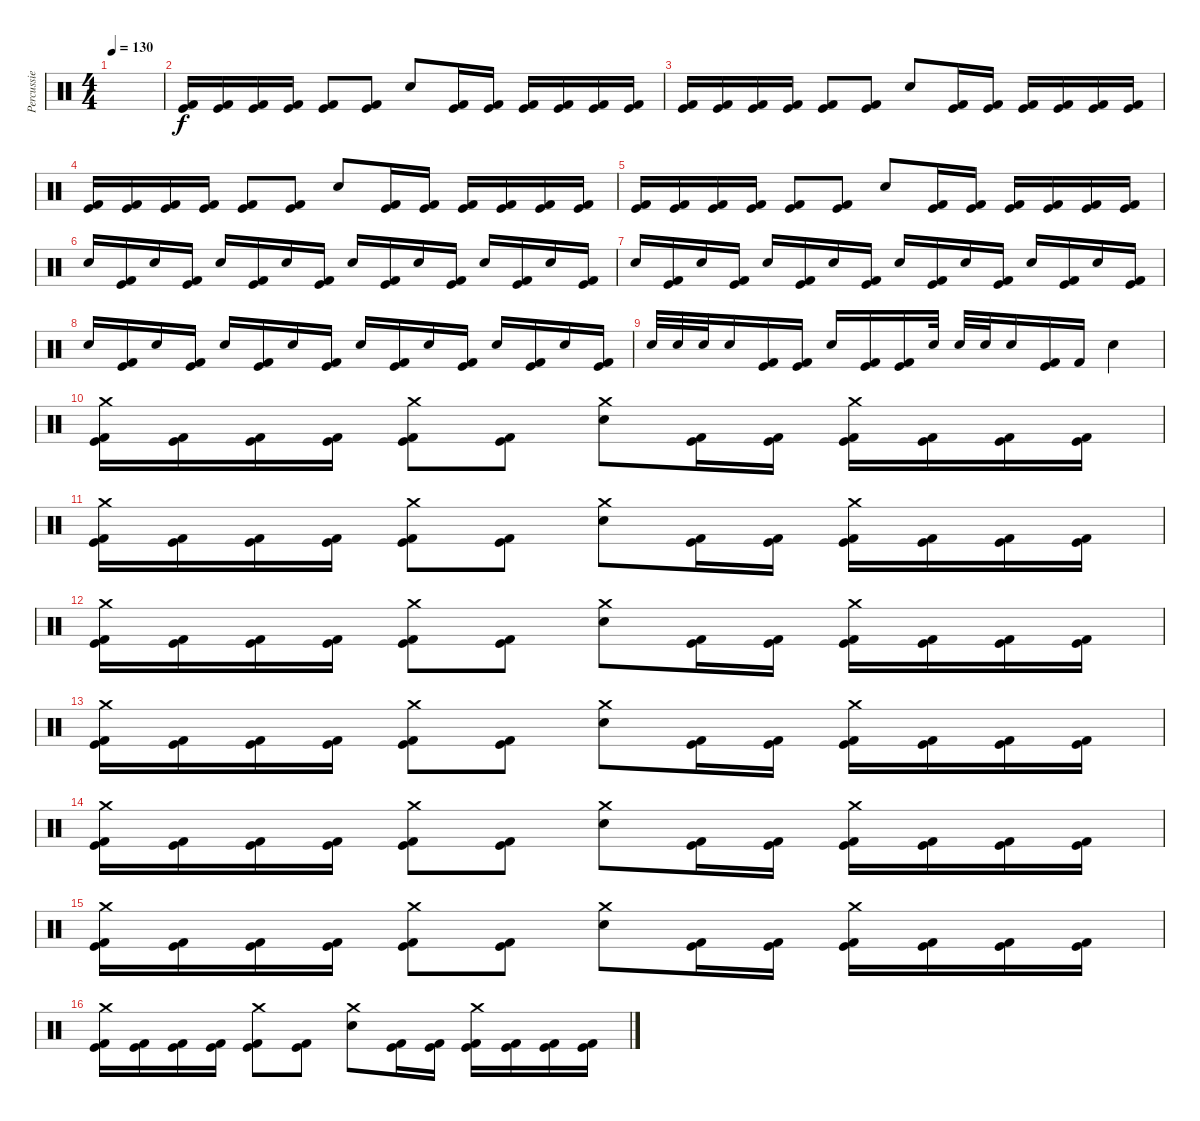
\track ("Percussie" "Percussie") {instrument percussion}
\staff {score}
\articulation defaults
\ts (4 4)
\tempo 130
\clef neutral
\ks c
|
("Kick (hit)" "Kick (hit) 2").16 ("Kick (hit)" "Kick (hit) 2").16 ("Kick (hit)" "Kick (hit) 2").16 ("Kick (hit)" "Kick (hit) 2").16 ("Kick (hit)" "Kick (hit) 2").8 ("Kick (hit)" "Kick (hit) 2").8 "Electric Snare (hit)".8 ("Kick (hit)" "Kick (hit) 2").16 ("Kick (hit)" "Kick (hit) 2").16 ("Kick (hit)" "Kick (hit) 2").16 ("Kick (hit)" "Kick (hit) 2").16 ("Kick (hit)" "Kick (hit) 2").16 ("Kick (hit)" "Kick (hit) 2").16 |
("Kick (hit)" "Kick (hit) 2").16 ("Kick (hit)" "Kick (hit) 2").16 ("Kick (hit)" "Kick (hit) 2").16 ("Kick (hit)" "Kick (hit) 2").16 ("Kick (hit)" "Kick (hit) 2").8 ("Kick (hit)" "Kick (hit) 2").8 "Electric Snare (hit)".8 ("Kick (hit)" "Kick (hit) 2").16 ("Kick (hit)" "Kick (hit) 2").16 ("Kick (hit)" "Kick (hit) 2").16 ("Kick (hit)" "Kick (hit) 2").16 ("Kick (hit)" "Kick (hit) 2").16 ("Kick (hit)" "Kick (hit) 2").16 |
("Kick (hit)" "Kick (hit) 2").16 ("Kick (hit)" "Kick (hit) 2").16 ("Kick (hit)" "Kick (hit) 2").16 ("Kick (hit)" "Kick (hit) 2").16 ("Kick (hit)" "Kick (hit) 2").8 ("Kick (hit)" "Kick (hit) 2").8 "Electric Snare (hit)".8 ("Kick (hit)" "Kick (hit) 2").16 ("Kick (hit)" "Kick (hit) 2").16 ("Kick (hit)" "Kick (hit) 2").16 ("Kick (hit)" "Kick (hit) 2").16 ("Kick (hit)" "Kick (hit) 2").16 ("Kick (hit)" "Kick (hit) 2").16 |
("Kick (hit)" "Kick (hit) 2").16 ("Kick (hit)" "Kick (hit) 2").16 ("Kick (hit)" "Kick (hit) 2").16 ("Kick (hit)" "Kick (hit) 2").16 ("Kick (hit)" "Kick (hit) 2").8 ("Kick (hit)" "Kick (hit) 2").8 "Electric Snare (hit)".8 ("Kick (hit)" "Kick (hit) 2").16 ("Kick (hit)" "Kick (hit) 2").16 ("Kick (hit)" "Kick (hit) 2").16 ("Kick (hit)" "Kick (hit) 2").16 ("Kick (hit)" "Kick (hit) 2").16 ("Kick (hit)" "Kick (hit) 2").16 |
"Electric Snare (hit)".16 ("Kick (hit)" "Kick (hit) 2").16 "Electric Snare (hit)".16 ("Kick (hit)" "Kick (hit) 2").16 "Electric Snare (hit)".16 ("Kick (hit)" "Kick (hit) 2").16 "Electric Snare (hit)".16 ("Kick (hit)" "Kick (hit) 2").16 "Electric Snare (hit)".16 ("Kick (hit)" "Kick (hit) 2").16 "Electric Snare (hit)".16 ("Kick (hit)" "Kick (hit) 2").16 "Electric Snare (hit)".16 ("Kick (hit)" "Kick (hit) 2").16 "Electric Snare (hit)".16 ("Kick (hit)" "Kick (hit) 2").16 |
"Electric Snare (hit)".16 ("Kick (hit)" "Kick (hit) 2").16 "Electric Snare (hit)".16 ("Kick (hit)" "Kick (hit) 2").16 "Electric Snare (hit)".16 ("Kick (hit)" "Kick (hit) 2").16 "Electric Snare (hit)".16 ("Kick (hit)" "Kick (hit) 2").16 "Electric Snare (hit)".16 ("Kick (hit)" "Kick (hit) 2").16 "Electric Snare (hit)".16 ("Kick (hit)" "Kick (hit) 2").16 "Electric Snare (hit)".16 ("Kick (hit)" "Kick (hit) 2").16 "Electric Snare (hit)".16 ("Kick (hit)" "Kick (hit) 2").16 |
"Electric Snare (hit)".16 ("Kick (hit)" "Kick (hit) 2").16 "Electric Snare (hit)".16 ("Kick (hit)" "Kick (hit) 2").16 "Electric Snare (hit)".16 ("Kick (hit)" "Kick (hit) 2").16 "Electric Snare (hit)".16 ("Kick (hit)" "Kick (hit) 2").16 "Electric Snare (hit)".16 ("Kick (hit)" "Kick (hit) 2").16 "Electric Snare (hit)".16 ("Kick (hit)" "Kick (hit) 2").16 "Electric Snare (hit)".16 ("Kick (hit)" "Kick (hit) 2").16 "Electric Snare (hit)".16 ("Kick (hit)" "Kick (hit) 2").16 |
"Electric Snare (hit)".32 "Electric Snare (hit)".32 "Electric Snare (hit)".32 "Electric Snare (hit)".16 ("Kick (hit)" "Kick (hit) 2").16 ("Kick (hit)" "Kick (hit) 2").16 "Electric Snare (hit)".16 ("Kick (hit)" "Kick (hit) 2").16 ("Kick (hit)" "Kick (hit) 2").16 "Electric Snare (hit)".32 "Electric Snare (hit)".32 "Electric Snare (hit)".32 "Electric Snare (hit)".16 ("Kick (hit)" "Kick (hit) 2").16 "Kick (hit) 2".16 "Electric Snare (hit)".4 |
("Crash medium (hit)" "Kick (hit)" "Kick (hit) 2").16 ("Kick (hit)" "Kick (hit) 2").16 ("Kick (hit)" "Kick (hit) 2").16 ("Kick (hit)" "Kick (hit) 2").16 ("Crash medium (hit)" "Kick (hit)" "Kick (hit) 2").8 ("Kick (hit)" "Kick (hit) 2").8 ("Crash medium (hit)" "Electric Snare (hit)").8 ("Kick (hit)" "Kick (hit) 2").16 ("Kick (hit)" "Kick (hit) 2").16 ("Crash medium (hit)" "Kick (hit)" "Kick (hit) 2").16 ("Kick (hit)" "Kick (hit) 2").16 ("Kick (hit)" "Kick (hit) 2").16 ("Kick (hit)" "Kick (hit) 2").16 |
("Crash medium (hit)" "Kick (hit)" "Kick (hit) 2").16 ("Kick (hit)" "Kick (hit) 2").16 ("Kick (hit)" "Kick (hit) 2").16 ("Kick (hit)" "Kick (hit) 2").16 ("Crash medium (hit)" "Kick (hit)" "Kick (hit) 2").8 ("Kick (hit)" "Kick (hit) 2").8 ("Crash medium (hit)" "Electric Snare (hit)").8 ("Kick (hit)" "Kick (hit) 2").16 ("Kick (hit)" "Kick (hit) 2").16 ("Crash medium (hit)" "Kick (hit)" "Kick (hit) 2").16 ("Kick (hit)" "Kick (hit) 2").16 ("Kick (hit)" "Kick (hit) 2").16 ("Kick (hit)" "Kick (hit) 2").16 |
("Crash medium (hit)" "Kick (hit)" "Kick (hit) 2").16 ("Kick (hit)" "Kick (hit) 2").16 ("Kick (hit)" "Kick (hit) 2").16 ("Kick (hit)" "Kick (hit) 2").16 ("Crash medium (hit)" "Kick (hit)" "Kick (hit) 2").8 ("Kick (hit)" "Kick (hit) 2").8 ("Crash medium (hit)" "Electric Snare (hit)").8 ("Kick (hit)" "Kick (hit) 2").16 ("Kick (hit)" "Kick (hit) 2").16 ("Crash medium (hit)" "Kick (hit)" "Kick (hit) 2").16 ("Kick (hit)" "Kick (hit) 2").16 ("Kick (hit)" "Kick (hit) 2").16 ("Kick (hit)" "Kick (hit) 2").16 |
("Crash medium (hit)" "Kick (hit)" "Kick (hit) 2").16 ("Kick (hit)" "Kick (hit) 2").16 ("Kick (hit)" "Kick (hit) 2").16 ("Kick (hit)" "Kick (hit) 2").16 ("Crash medium (hit)" "Kick (hit)" "Kick (hit) 2").8 ("Kick (hit)" "Kick (hit) 2").8 ("Crash medium (hit)" "Electric Snare (hit)").8 ("Kick (hit)" "Kick (hit) 2").16 ("Kick (hit)" "Kick (hit) 2").16 ("Crash medium (hit)" "Kick (hit)" "Kick (hit) 2").16 ("Kick (hit)" "Kick (hit) 2").16 ("Kick (hit)" "Kick (hit) 2").16 ("Kick (hit)" "Kick (hit) 2").16 |
("Crash medium (hit)" "Kick (hit)" "Kick (hit) 2").16 ("Kick (hit)" "Kick (hit) 2").16 ("Kick (hit)" "Kick (hit) 2").16 ("Kick (hit)" "Kick (hit) 2").16 ("Crash medium (hit)" "Kick (hit)" "Kick (hit) 2").8 ("Kick (hit)" "Kick (hit) 2").8 ("Crash medium (hit)" "Electric Snare (hit)").8 ("Kick (hit)" "Kick (hit) 2").16 ("Kick (hit)" "Kick (hit) 2").16 ("Crash medium (hit)" "Kick (hit)" "Kick (hit) 2").16 ("Kick (hit)" "Kick (hit) 2").16 ("Kick (hit)" "Kick (hit) 2").16 ("Kick (hit)" "Kick (hit) 2").16 |
("Crash medium (hit)" "Kick (hit)" "Kick (hit) 2").16 ("Kick (hit)" "Kick (hit) 2").16 ("Kick (hit)" "Kick (hit) 2").16 ("Kick (hit)" "Kick (hit) 2").16 ("Crash medium (hit)" "Kick (hit)" "Kick (hit) 2").8 ("Kick (hit)" "Kick (hit) 2").8 ("Crash medium (hit)" "Electric Snare (hit)").8 ("Kick (hit)" "Kick (hit) 2").16 ("Kick (hit)" "Kick (hit) 2").16 ("Crash medium (hit)" "Kick (hit)" "Kick (hit) 2").16 ("Kick (hit)" "Kick (hit) 2").16 ("Kick (hit)" "Kick (hit) 2").16 ("Kick (hit)" "Kick (hit) 2").16 |
("Crash medium (hit)" "Kick (hit)" "Kick (hit) 2").16 ("Kick (hit)" "Kick (hit) 2").16 ("Kick (hit)" "Kick (hit) 2").16 ("Kick (hit)" "Kick (hit) 2").16 ("Crash medium (hit)" "Kick (hit)" "Kick (hit) 2").8 ("Kick (hit)" "Kick (hit) 2").8 ("Crash medium (hit)" "Electric Snare (hit)").8 ("Kick (hit)" "Kick (hit) 2").16 ("Kick (hit)" "Kick (hit) 2").16 ("Crash medium (hit)" "Kick (hit)" "Kick (hit) 2").16 ("Kick (hit)" "Kick (hit) 2").16 ("Kick (hit)" "Kick (hit) 2").16 ("Kick (hit)" "Kick (hit) 2").16
